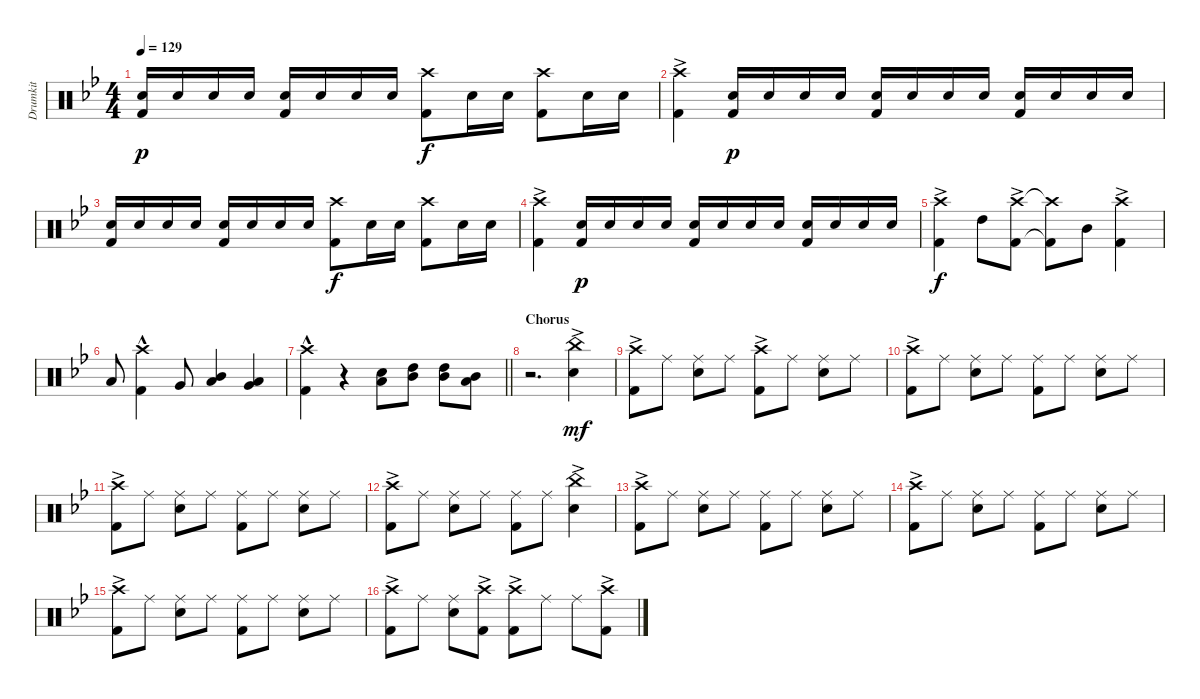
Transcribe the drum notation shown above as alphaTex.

\track ("Drumkit" "Drumkit") {instrument percussion}
\staff {score}
\articulation defaults
\ts (4 4)
\tempo 129
\clef neutral
\ks bb
("Snare (hit) 2" "Kick (hit) 2").16{dy p} "Snare (hit) 2".16 "Snare (hit) 2".16 "Snare (hit) 2".16 ("Snare (hit) 2" "Kick (hit) 2").16 "Snare (hit) 2".16 "Snare (hit) 2".16 "Snare (hit) 2".16 ("Crash high (hit)" "Kick (hit) 2").8{dy f} "Snare (hit) 2".16 "Snare (hit) 2".16 ("Crash high (hit)" "Kick (hit) 2").8 "Snare (hit) 2".16 "Snare (hit) 2".16 |
("Crash high (hit)"{ac} "Kick (hit) 2"{ac}).4 ("Snare (hit) 2" "Kick (hit) 2").16{dy p} "Snare (hit) 2".16 "Snare (hit) 2".16 "Snare (hit) 2".16 ("Snare (hit) 2" "Kick (hit) 2").16 "Snare (hit) 2".16 "Snare (hit) 2".16 "Snare (hit) 2".16 ("Snare (hit) 2" "Kick (hit) 2").16 "Snare (hit) 2".16 "Snare (hit) 2".16 "Snare (hit) 2".16 |
("Snare (hit) 2" "Kick (hit) 2").16 "Snare (hit) 2".16 "Snare (hit) 2".16 "Snare (hit) 2".16 ("Snare (hit) 2" "Kick (hit) 2").16 "Snare (hit) 2".16 "Snare (hit) 2".16 "Snare (hit) 2".16 ("Crash high (hit)" "Kick (hit) 2").8{dy f} "Snare (hit) 2".16 "Snare (hit) 2".16 ("Crash high (hit)" "Kick (hit) 2").8 "Snare (hit) 2".16 "Snare (hit) 2".16 |
("Crash high (hit)"{ac} "Kick (hit) 2"{ac}).4 ("Snare (hit) 2" "Kick (hit) 2").16{dy p} "Snare (hit) 2".16 "Snare (hit) 2".16 "Snare (hit) 2".16 ("Snare (hit) 2" "Kick (hit) 2").16 "Snare (hit) 2".16 "Snare (hit) 2".16 "Snare (hit) 2".16 ("Snare (hit) 2" "Kick (hit) 2").16 "Snare (hit) 2".16 "Snare (hit) 2".16 "Snare (hit) 2".16 |
("Crash high (hit)"{ac} "Kick (hit) 2"{ac}).4{dy f} "High Tom (hit)".8 ("Crash high (hit)"{ac} "Kick (hit) 2"{ac}).8 ("Crash high (hit)"{t} "Kick (hit) 2"{t}).8 "Mid Tom (hit)".8 ("Crash high (hit)"{ac} "Kick (hit) 2"{ac}).4 |
"Low Tom (hit)".8 ("Crash high (hit)"{hac} "Kick (hit) 2"{hac}).4 "Very Low Tom (hit)".8 ("Low Tom (hit)" "Mid Tom (hit)").4 ("Low Tom (hit)" "Very Low Tom (hit)").4 |
\barLineRight lightlight
("Crash high (hit)"{hac} "Kick (hit) 2"{hac}).4 r.4 ("Snare (hit) 2" "Low Tom (hit)").8 ("Mid Tom (hit)" "High Tom (hit)").8 ("Mid Tom (hit)" "High Tom (hit)").8 ("Low Tom (hit)" "Mid Tom (hit)").8 |
\section ("" "Chorus")
r.2{d} ("Snare (hit) 2"{ac} "China (hit)"{ac}).4{dy mf} |
("Crash high (hit)"{ac} "Kick (hit) 2"{ac}).8 "Ride (middle)".8 ("Ride (middle)" "Snare (hit) 2").8 "Ride (middle)".8 ("Crash high (hit)"{ac} "Kick (hit) 2"{ac}).8 "Ride (middle)".8 ("Ride (middle)" "Snare (hit) 2").8 "Ride (middle)".8 |
("Crash high (hit)"{ac} "Kick (hit) 2"{ac}).8 "Ride (middle)".8 ("Ride (middle)" "Snare (hit) 2").8 "Ride (middle)".8 ("Ride (middle)" "Kick (hit) 2").8 "Ride (middle)".8 ("Ride (middle)" "Snare (hit) 2").8 "Ride (middle)".8 |
("Crash high (hit)"{ac} "Kick (hit) 2"{ac}).8 "Ride (middle)".8 ("Ride (middle)" "Snare (hit) 2").8 "Ride (middle)".8 ("Ride (middle)" "Kick (hit) 2").8 "Ride (middle)".8 ("Ride (middle)" "Snare (hit) 2").8 "Ride (middle)".8 |
("Crash high (hit)"{ac} "Kick (hit) 2"{ac}).8 "Ride (middle)".8 ("Ride (middle)" "Snare (hit) 2").8 "Ride (middle)".8 ("Ride (middle)" "Kick (hit) 2").8 "Ride (middle)".8 ("China (hit)"{ac} "Snare (hit) 2"{ac}).4 |
("Crash high (hit)"{ac} "Kick (hit) 2"{ac}).8 "Ride (middle)".8 ("Ride (middle)" "Snare (hit) 2").8 "Ride (middle)".8 ("Ride (middle)" "Kick (hit) 2").8 "Ride (middle)".8 ("Ride (middle)" "Snare (hit) 2").8 "Ride (middle)".8 |
("Crash high (hit)"{ac} "Kick (hit) 2"{ac}).8 "Ride (middle)".8 ("Ride (middle)" "Snare (hit) 2").8 "Ride (middle)".8 ("Ride (middle)" "Kick (hit) 2").8 "Ride (middle)".8 ("Ride (middle)" "Snare (hit) 2").8 "Ride (middle)".8 |
("Crash high (hit)"{ac} "Kick (hit) 2"{ac}).8 "Ride (middle)".8 ("Ride (middle)" "Snare (hit) 2").8 "Ride (middle)".8 ("Ride (middle)" "Kick (hit) 2").8 "Ride (middle)".8 ("Ride (middle)" "Snare (hit) 2").8 "Ride (middle)".8 |
("Crash high (hit)"{ac} "Kick (hit) 2"{ac}).8 "Ride (middle)".8 ("Ride (middle)" "Snare (hit) 2").8 ("Crash high (hit)"{ac} "Kick (hit) 2"{ac}).8 ("Crash high (hit)"{ac} "Kick (hit) 2"{ac}).8 "Ride (middle)".8 "Ride (middle)".8 ("Crash high (hit)"{ac} "Kick (hit) 2"{ac}).8
